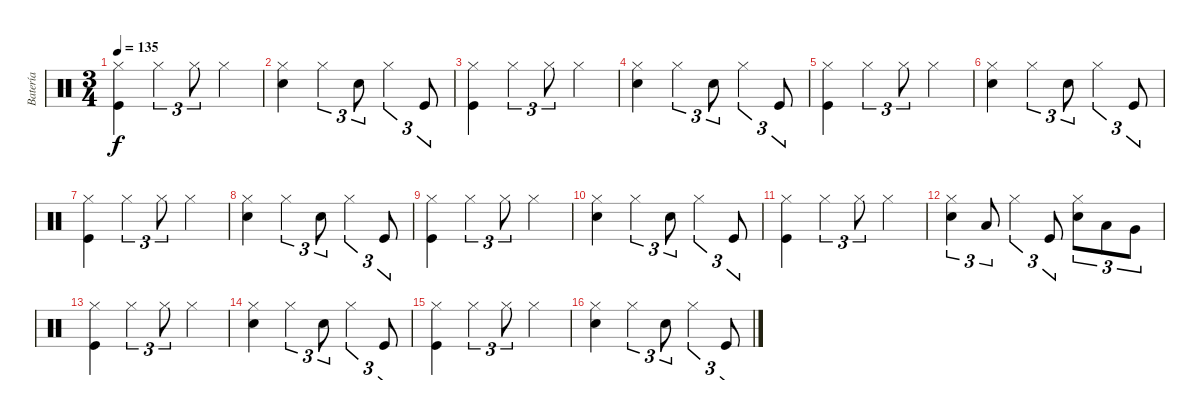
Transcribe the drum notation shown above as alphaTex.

\track ("Batería" "Batería") {instrument percussion}
\staff {score}
\articulation defaults
\ts (3 4)
\tempo 135
\clef neutral
\ks c
("Hi-Hat (closed)" "Kick (hit)").4{dy f} "Hi-Hat (closed)".4{tu (3 2)} "Hi-Hat (closed)".8{tu (3 2)} "Hi-Hat (closed)".4 |
("Hi-Hat (closed)" "Snare (hit) 2").4 "Hi-Hat (closed)".4{tu (3 2)} "Snare (hit) 2".8{tu (3 2)} "Hi-Hat (closed)".4{tu (3 2)} "Kick (hit)".8{tu (3 2)} |
("Hi-Hat (closed)" "Kick (hit)").4 "Hi-Hat (closed)".4{tu (3 2)} "Hi-Hat (closed)".8{tu (3 2)} "Hi-Hat (closed)".4 |
("Hi-Hat (closed)" "Snare (hit) 2").4 "Hi-Hat (closed)".4{tu (3 2)} "Snare (hit) 2".8{tu (3 2)} "Hi-Hat (closed)".4{tu (3 2)} "Kick (hit)".8{tu (3 2)} |
("Hi-Hat (closed)" "Kick (hit)").4 "Hi-Hat (closed)".4{tu (3 2)} "Hi-Hat (closed)".8{tu (3 2)} "Hi-Hat (closed)".4 |
("Hi-Hat (closed)" "Snare (hit) 2").4 "Hi-Hat (closed)".4{tu (3 2)} "Snare (hit) 2".8{tu (3 2)} "Hi-Hat (closed)".4{tu (3 2)} "Kick (hit)".8{tu (3 2)} |
("Hi-Hat (closed)" "Kick (hit)").4 "Hi-Hat (closed)".4{tu (3 2)} "Hi-Hat (closed)".8{tu (3 2)} "Hi-Hat (closed)".4 |
("Hi-Hat (closed)" "Snare (hit) 2").4 "Hi-Hat (closed)".4{tu (3 2)} "Snare (hit) 2".8{tu (3 2)} "Hi-Hat (closed)".4{tu (3 2)} "Kick (hit)".8{tu (3 2)} |
("Hi-Hat (closed)" "Kick (hit)").4 "Hi-Hat (closed)".4{tu (3 2)} "Hi-Hat (closed)".8{tu (3 2)} "Hi-Hat (closed)".4 |
("Hi-Hat (closed)" "Snare (hit) 2").4 "Hi-Hat (closed)".4{tu (3 2)} "Snare (hit) 2".8{tu (3 2)} "Hi-Hat (closed)".4{tu (3 2)} "Kick (hit)".8{tu (3 2)} |
("Hi-Hat (closed)" "Kick (hit)").4 "Hi-Hat (closed)".4{tu (3 2)} "Hi-Hat (closed)".8{tu (3 2)} "Hi-Hat (closed)".4 |
("Hi-Hat (closed)" "Snare (hit) 2").4{tu (3 2)} "Low Tom (hit)".8{tu (3 2)} "Hi-Hat (closed)".4{tu (3 2)} "Kick (hit)".8{tu (3 2)} ("Hi-Hat (closed)" "Snare (hit) 2").8{tu (3 2)} "Low Tom (hit)".8{tu (3 2)} "Very Low Tom (hit)".8{tu (3 2)} |
("Hi-Hat (closed)" "Kick (hit)").4 "Hi-Hat (closed)".4{tu (3 2)} "Hi-Hat (closed)".8{tu (3 2)} "Hi-Hat (closed)".4 |
("Hi-Hat (closed)" "Snare (hit) 2").4 "Hi-Hat (closed)".4{tu (3 2)} "Snare (hit) 2".8{tu (3 2)} "Hi-Hat (closed)".4{tu (3 2)} "Kick (hit)".8{tu (3 2)} |
("Hi-Hat (closed)" "Kick (hit)").4 "Hi-Hat (closed)".4{tu (3 2)} "Hi-Hat (closed)".8{tu (3 2)} "Hi-Hat (closed)".4 |
("Hi-Hat (closed)" "Snare (hit) 2").4 "Hi-Hat (closed)".4{tu (3 2)} "Snare (hit) 2".8{tu (3 2)} "Hi-Hat (closed)".4{tu (3 2)} "Kick (hit)".8{tu (3 2)}
